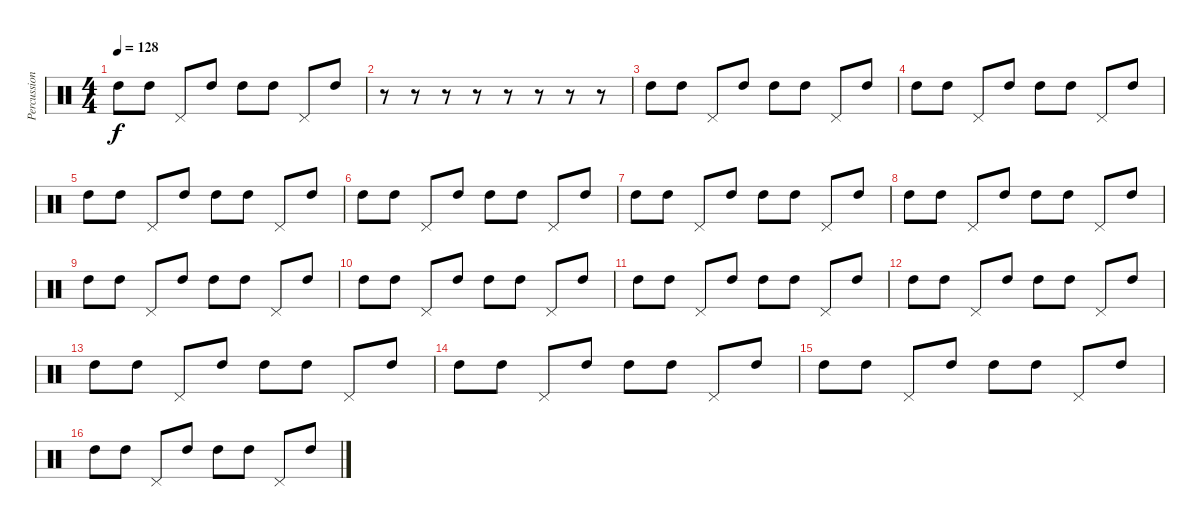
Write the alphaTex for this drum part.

\track ("Percussion" "Percussion") {instrument percussion}
\staff {score}
\articulation defaults
\ts (4 4)
\tempo 128
\clef neutral
\ks c "High Tom (hit)".8{dy f} "High Tom (hit)".8 "Pedal Hi-Hat (hit)".8 "High Tom (hit)".8 "High Tom (hit)".8 "High Tom (hit)".8 "Pedal Hi-Hat (hit)".8 "High Tom (hit)".8
|
r.8 r.8 r.8 r.8 r.8 r.8 r.8 r.8 |
"High Tom (hit)".8 "High Tom (hit)".8 "Pedal Hi-Hat (hit)".8 "High Tom (hit)".8 "High Tom (hit)".8 "High Tom (hit)".8 "Pedal Hi-Hat (hit)".8 "High Tom (hit)".8 |
"High Tom (hit)".8 "High Tom (hit)".8 "Pedal Hi-Hat (hit)".8 "High Tom (hit)".8 "High Tom (hit)".8 "High Tom (hit)".8 "Pedal Hi-Hat (hit)".8 "High Tom (hit)".8 |
"High Tom (hit)".8 "High Tom (hit)".8 "Pedal Hi-Hat (hit)".8 "High Tom (hit)".8 "High Tom (hit)".8 "High Tom (hit)".8 "Pedal Hi-Hat (hit)".8 "High Tom (hit)".8 |
"High Tom (hit)".8 "High Tom (hit)".8 "Pedal Hi-Hat (hit)".8 "High Tom (hit)".8 "High Tom (hit)".8 "High Tom (hit)".8 "Pedal Hi-Hat (hit)".8 "High Tom (hit)".8 |
"High Tom (hit)".8 "High Tom (hit)".8 "Pedal Hi-Hat (hit)".8 "High Tom (hit)".8 "High Tom (hit)".8 "High Tom (hit)".8 "Pedal Hi-Hat (hit)".8 "High Tom (hit)".8 |
"High Tom (hit)".8 "High Tom (hit)".8 "Pedal Hi-Hat (hit)".8 "High Tom (hit)".8 "High Tom (hit)".8 "High Tom (hit)".8 "Pedal Hi-Hat (hit)".8 "High Tom (hit)".8 |
"High Tom (hit)".8 "High Tom (hit)".8 "Pedal Hi-Hat (hit)".8 "High Tom (hit)".8 "High Tom (hit)".8 "High Tom (hit)".8 "Pedal Hi-Hat (hit)".8 "High Tom (hit)".8 |
"High Tom (hit)".8 "High Tom (hit)".8 "Pedal Hi-Hat (hit)".8 "High Tom (hit)".8 "High Tom (hit)".8 "High Tom (hit)".8 "Pedal Hi-Hat (hit)".8 "High Tom (hit)".8 |
"High Tom (hit)".8 "High Tom (hit)".8 "Pedal Hi-Hat (hit)".8 "High Tom (hit)".8 "High Tom (hit)".8 "High Tom (hit)".8 "Pedal Hi-Hat (hit)".8 "High Tom (hit)".8 |
"High Tom (hit)".8 "High Tom (hit)".8 "Pedal Hi-Hat (hit)".8 "High Tom (hit)".8 "High Tom (hit)".8 "High Tom (hit)".8 "Pedal Hi-Hat (hit)".8 "High Tom (hit)".8 |
"High Tom (hit)".8 "High Tom (hit)".8 "Pedal Hi-Hat (hit)".8 "High Tom (hit)".8 "High Tom (hit)".8 "High Tom (hit)".8 "Pedal Hi-Hat (hit)".8 "High Tom (hit)".8 |
"High Tom (hit)".8 "High Tom (hit)".8 "Pedal Hi-Hat (hit)".8 "High Tom (hit)".8 "High Tom (hit)".8 "High Tom (hit)".8 "Pedal Hi-Hat (hit)".8 "High Tom (hit)".8 |
"High Tom (hit)".8 "High Tom (hit)".8 "Pedal Hi-Hat (hit)".8 "High Tom (hit)".8 "High Tom (hit)".8 "High Tom (hit)".8 "Pedal Hi-Hat (hit)".8 "High Tom (hit)".8 |
"High Tom (hit)".8 "High Tom (hit)".8 "Pedal Hi-Hat (hit)".8 "High Tom (hit)".8 "High Tom (hit)".8 "High Tom (hit)".8 "Pedal Hi-Hat (hit)".8 "High Tom (hit)".8
